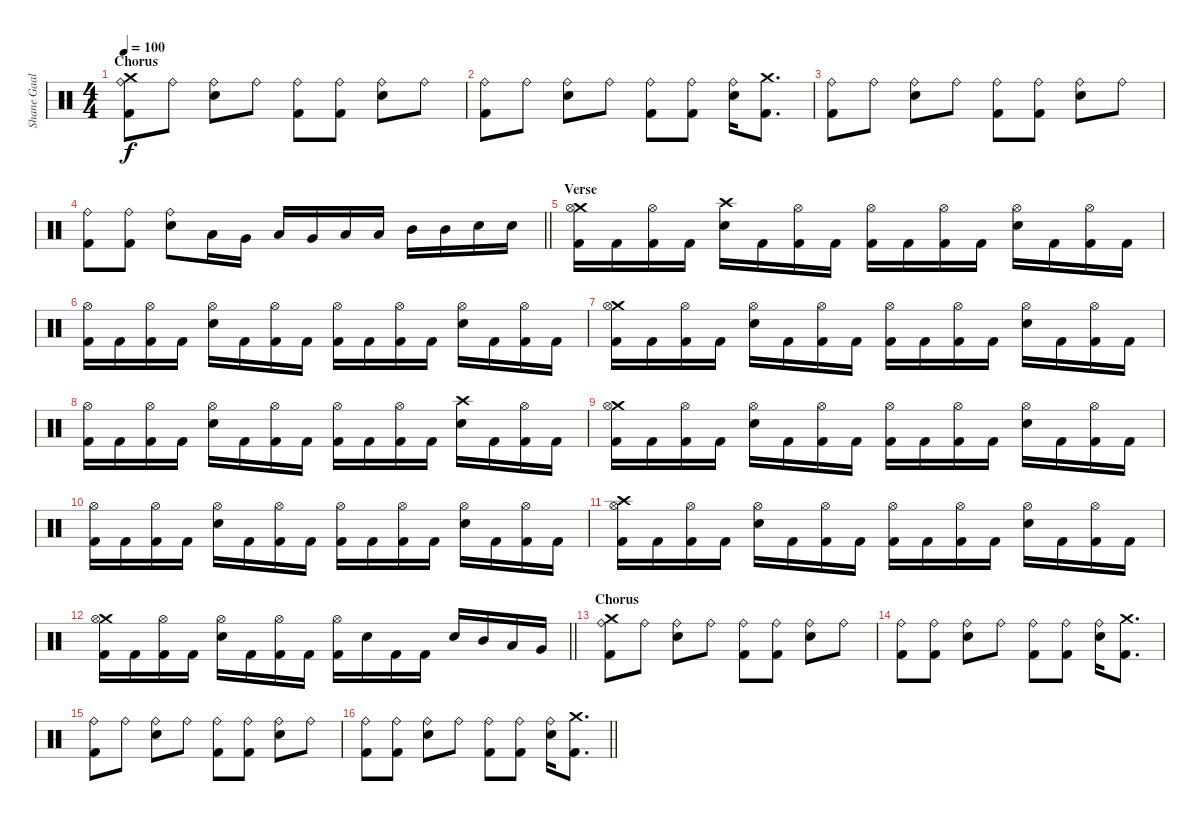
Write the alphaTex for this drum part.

\track ("Shane Gaalaas" "Shane Gaal") {instrument percussion}
\staff {score}
\articulation defaults
\ts (4 4)
\section ("" "Chorus")
\tempo 100
\clef neutral
\ks c
("Crash medium (hit)" "Ride (bell)" "Kick (hit) 2").8{dy f} "Ride (bell)".8 ("Ride (bell)" "Snare (hit) 2").8 "Ride (bell)".8 ("Ride (bell)" "Kick (hit) 2").8 ("Ride (bell)" "Kick (hit) 2").8 ("Ride (bell)" "Snare (hit) 2").8 "Ride (bell)".8 |
("Ride (bell)" "Kick (hit) 2").8 "Ride (bell)".8 ("Ride (bell)" "Snare (hit) 2").8 "Ride (bell)".8 ("Ride (bell)" "Kick (hit) 2").8 ("Ride (bell)" "Kick (hit) 2").8 ("Ride (bell)" "Snare (hit) 2").16 ("Crash medium (hit)" "Kick (hit) 2").8{d} |
("Ride (bell)" "Kick (hit) 2").8 "Ride (bell)".8 ("Ride (bell)" "Snare (hit) 2").8 "Ride (bell)".8 ("Ride (bell)" "Kick (hit) 2").8 ("Ride (bell)" "Kick (hit) 2").8 ("Ride (bell)" "Snare (hit) 2").8 "Ride (bell)".8 |
\barLineRight lightlight
("Ride (bell)" "Kick (hit) 2").8 ("Ride (bell)" "Kick (hit) 2").8 ("Ride (bell)" "Snare (hit) 2").8 "Low Tom (hit)".16 "Very Low Tom (hit)".16 "Low Floor Tom (hit)".16 "Very Low Tom (hit)".16 "Low Tom (hit)".16 "Low Tom (hit)".16 "Mid Tom (hit)".16 "Mid Tom (hit)".16 "Snare (hit) 2".16 "Snare (hit) 2".16 |
\section ("" "Verse")
("Crash medium (hit)" "Hi-Hat (open)" "Kick (hit) 2").16 "Kick (hit) 2".16 ("Hi-Hat (open)" "Kick (hit) 2").16 "Kick (hit) 2".16 ("Crash high (hit)" "Snare (hit) 2").16 "Kick (hit) 2".16 ("Hi-Hat (open)" "Kick (hit) 2").16 "Kick (hit) 2".16 ("Hi-Hat (open)" "Kick (hit) 2").16 "Kick (hit) 2".16 ("Hi-Hat (open)" "Kick (hit) 2").16 "Kick (hit) 2".16 ("Hi-Hat (open)" "Snare (hit) 2").16 "Kick (hit) 2".16 ("Hi-Hat (open)" "Kick (hit) 2").16 "Kick (hit) 2".16 |
("Hi-Hat (open)" "Kick (hit) 2").16 "Kick (hit) 2".16 ("Hi-Hat (open)" "Kick (hit) 2").16 "Kick (hit) 2".16 ("Hi-Hat (open)" "Snare (hit) 2").16 "Kick (hit) 2".16 ("Hi-Hat (open)" "Kick (hit) 2").16 "Kick (hit) 2".16 ("Hi-Hat (open)" "Kick (hit) 2").16 "Kick (hit) 2".16 ("Hi-Hat (open)" "Kick (hit) 2").16 "Kick (hit) 2".16 ("Hi-Hat (open)" "Snare (hit) 2").16 "Kick (hit) 2".16 ("Hi-Hat (open)" "Kick (hit) 2").16 "Kick (hit) 2".16 |
("Crash medium (hit)" "Hi-Hat (open)" "Kick (hit) 2").16 "Kick (hit) 2".16 ("Hi-Hat (open)" "Kick (hit) 2").16 "Kick (hit) 2".16 ("Hi-Hat (open)" "Snare (hit) 2").16 "Kick (hit) 2".16 ("Hi-Hat (open)" "Kick (hit) 2").16 "Kick (hit) 2".16 ("Hi-Hat (open)" "Kick (hit) 2").16 "Kick (hit) 2".16 ("Hi-Hat (open)" "Kick (hit) 2").16 "Kick (hit) 2".16 ("Hi-Hat (open)" "Snare (hit) 2").16 "Kick (hit) 2".16 ("Hi-Hat (open)" "Kick (hit) 2").16 "Kick (hit) 2".16 |
("Hi-Hat (open)" "Kick (hit) 2").16 "Kick (hit) 2".16 ("Hi-Hat (open)" "Kick (hit) 2").16 "Kick (hit) 2".16 ("Hi-Hat (open)" "Snare (hit) 2").16 "Kick (hit) 2".16 ("Hi-Hat (open)" "Kick (hit) 2").16 "Kick (hit) 2".16 ("Hi-Hat (open)" "Kick (hit) 2").16 "Kick (hit) 2".16 ("Hi-Hat (open)" "Kick (hit) 2").16 "Kick (hit) 2".16 ("Crash high (hit)" "Snare (hit) 2").16 "Kick (hit) 2".16 ("Hi-Hat (open)" "Kick (hit) 2").16 "Kick (hit) 2".16 |
("Crash medium (hit)" "Hi-Hat (open)" "Kick (hit) 2").16 "Kick (hit) 2".16 ("Hi-Hat (open)" "Kick (hit) 2").16 "Kick (hit) 2".16 ("Hi-Hat (open)" "Snare (hit) 2").16 "Kick (hit) 2".16 ("Hi-Hat (open)" "Kick (hit) 2").16 "Kick (hit) 2".16 ("Hi-Hat (open)" "Kick (hit) 2").16 "Kick (hit) 2".16 ("Hi-Hat (open)" "Kick (hit) 2").16 "Kick (hit) 2".16 ("Hi-Hat (open)" "Snare (hit) 2").16 "Kick (hit) 2".16 ("Hi-Hat (open)" "Kick (hit) 2").16 "Kick (hit) 2".16 |
("Hi-Hat (open)" "Kick (hit) 2").16 "Kick (hit) 2".16 ("Hi-Hat (open)" "Kick (hit) 2").16 "Kick (hit) 2".16 ("Hi-Hat (open)" "Snare (hit) 2").16 "Kick (hit) 2".16 ("Hi-Hat (open)" "Kick (hit) 2").16 "Kick (hit) 2".16 ("Hi-Hat (open)" "Kick (hit) 2").16 "Kick (hit) 2".16 ("Hi-Hat (open)" "Kick (hit) 2").16 "Kick (hit) 2".16 ("Hi-Hat (open)" "Snare (hit) 2").16 "Kick (hit) 2".16 ("Hi-Hat (open)" "Kick (hit) 2").16 "Kick (hit) 2".16 |
("Crash high (hit)" "Hi-Hat (open)" "Kick (hit) 2").16 "Kick (hit) 2".16 ("Hi-Hat (open)" "Kick (hit) 2").16 "Kick (hit) 2".16 ("Hi-Hat (open)" "Snare (hit) 2").16 "Kick (hit) 2".16 ("Hi-Hat (open)" "Kick (hit) 2").16 "Kick (hit) 2".16 ("Hi-Hat (open)" "Kick (hit) 2").16 "Kick (hit) 2".16 ("Hi-Hat (open)" "Kick (hit) 2").16 "Kick (hit) 2".16 ("Hi-Hat (open)" "Snare (hit) 2").16 "Kick (hit) 2".16 ("Hi-Hat (open)" "Kick (hit) 2").16 "Kick (hit) 2".16 |
\barLineRight lightlight
("Crash medium (hit)" "Hi-Hat (open)" "Kick (hit) 2").16 "Kick (hit) 2".16 ("Hi-Hat (open)" "Kick (hit) 2").16 "Kick (hit) 2".16 ("Hi-Hat (open)" "Snare (hit) 2").16 "Kick (hit) 2".16 ("Hi-Hat (open)" "Kick (hit) 2").16 "Kick (hit) 2".16 ("Hi-Hat (open)" "Kick (hit) 2").16 "Snare (hit) 2".16 "Kick (hit) 2".16 "Kick (hit) 2".16 "Snare (hit) 2".16 "Mid Tom (hit)".16 "Low Tom (hit)".16 "Very Low Tom (hit)".16 |
\section ("" "Chorus")
("Crash medium (hit)" "Ride (bell)" "Kick (hit) 2").8 "Ride (bell)".8 ("Ride (bell)" "Snare (hit) 2").8 "Ride (bell)".8 ("Ride (bell)" "Kick (hit) 2").8 ("Ride (bell)" "Kick (hit) 2").8 ("Ride (bell)" "Snare (hit) 2").8 "Ride (bell)".8 |
("Ride (bell)" "Kick (hit) 2").8 ("Ride (bell)" "Kick (hit) 2").8 ("Ride (bell)" "Snare (hit) 2").8 "Ride (bell)".8 ("Ride (bell)" "Kick (hit) 2").8 ("Ride (bell)" "Kick (hit) 2").8 ("Ride (bell)" "Snare (hit) 2").16 ("Crash medium (hit)" "Kick (hit) 2").8{d} |
("Ride (bell)" "Kick (hit) 2").8 "Ride (bell)".8 ("Ride (bell)" "Snare (hit) 2").8 "Ride (bell)".8 ("Ride (bell)" "Kick (hit) 2").8 ("Ride (bell)" "Kick (hit) 2").8 ("Ride (bell)" "Snare (hit) 2").8 "Ride (bell)".8 |
\barLineRight lightlight
("Ride (bell)" "Kick (hit) 2").8 ("Ride (bell)" "Kick (hit) 2").8 ("Ride (bell)" "Snare (hit) 2").8 "Ride (bell)".8 ("Ride (bell)" "Kick (hit) 2").8 ("Ride (bell)" "Kick (hit) 2").8 ("Ride (bell)" "Snare (hit) 2").16 ("Crash medium (hit)" "Kick (hit) 2").8{d}
